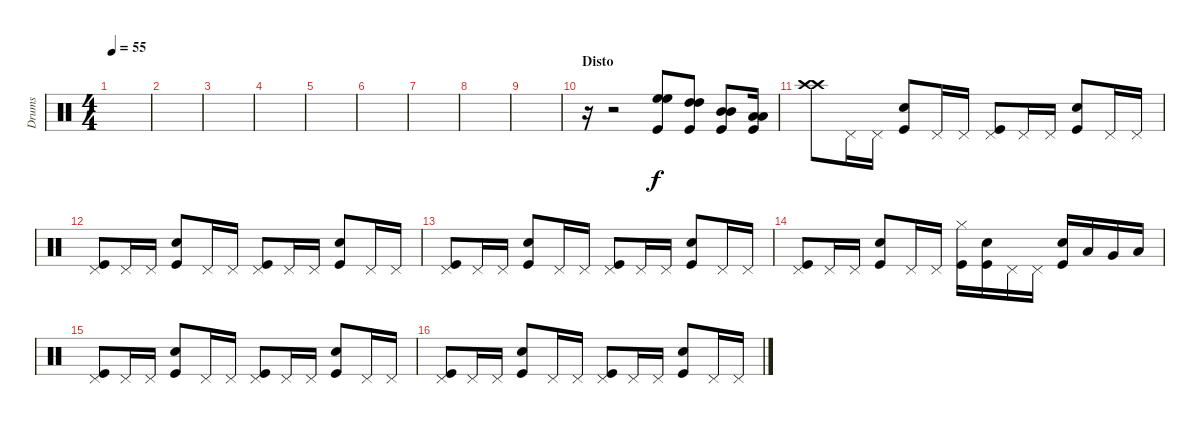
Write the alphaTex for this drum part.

\track ("Drums" "Drums") {instrument percussion}
\staff {score}
\articulation defaults
\ts (4 4)
\tempo 55
\clef neutral
\ks c
|
|
|
|
|
|
|
|
|
\section ("" "Disto")
r.16 r.2 ("High Floor Tom (hit)" "High Floor Tom (hit)" "Kick (hit)").8 ("High Tom (hit)" "High Tom (hit)" "Kick (hit)").8 ("Mid Tom (hit)" "Mid Tom (hit)" "Kick (hit)").8 ("Low Tom (hit)" "Low Tom (hit)" "Kick (hit)").16 |
("Crash high (hit)" "Crash high (hit)").8{dy f} "Pedal Hi-Hat (hit)".16 "Pedal Hi-Hat (hit)".16 ("Snare (hit) 2" "Kick (hit)").8 "Pedal Hi-Hat (hit)".16 "Pedal Hi-Hat (hit)".16 ("Pedal Hi-Hat (hit)" "Kick (hit)").8 "Pedal Hi-Hat (hit)".16 "Pedal Hi-Hat (hit)".16 ("Snare (hit) 2" "Kick (hit)").8 "Pedal Hi-Hat (hit)".16 "Pedal Hi-Hat (hit)".16 |
("Pedal Hi-Hat (hit)" "Kick (hit)").8 "Pedal Hi-Hat (hit)".16 "Pedal Hi-Hat (hit)".16 ("Snare (hit) 2" "Kick (hit)").8 "Pedal Hi-Hat (hit)".16 "Pedal Hi-Hat (hit)".16 ("Pedal Hi-Hat (hit)" "Kick (hit)").8 "Pedal Hi-Hat (hit)".16 "Pedal Hi-Hat (hit)".16 ("Snare (hit) 2" "Kick (hit)").8 "Pedal Hi-Hat (hit)".16 "Pedal Hi-Hat (hit)".16 |
("Pedal Hi-Hat (hit)" "Kick (hit)").8 "Pedal Hi-Hat (hit)".16 "Pedal Hi-Hat (hit)".16 ("Snare (hit) 2" "Kick (hit)").8 "Pedal Hi-Hat (hit)".16 "Pedal Hi-Hat (hit)".16 ("Pedal Hi-Hat (hit)" "Kick (hit)").8 "Pedal Hi-Hat (hit)".16 "Pedal Hi-Hat (hit)".16 ("Snare (hit) 2" "Kick (hit)").8 "Pedal Hi-Hat (hit)".16 "Pedal Hi-Hat (hit)".16 |
("Pedal Hi-Hat (hit)" "Kick (hit)").8 "Pedal Hi-Hat (hit)".16 "Pedal Hi-Hat (hit)".16 ("Snare (hit) 2" "Kick (hit)").8 "Pedal Hi-Hat (hit)".16 "Pedal Hi-Hat (hit)".16 ("Hi-Hat (closed)" "Kick (hit)").16 ("Snare (hit) 2" "Kick (hit)").16 "Pedal Hi-Hat (hit)".16 "Pedal Hi-Hat (hit)".16 ("Snare (hit) 2" "Kick (hit)").16 "Low Tom (hit)".16 "Very Low Tom (hit)".16 "Low Floor Tom (hit)".16 |
("Pedal Hi-Hat (hit)" "Kick (hit)").8 "Pedal Hi-Hat (hit)".16 "Pedal Hi-Hat (hit)".16 ("Snare (hit) 2" "Kick (hit)").8 "Pedal Hi-Hat (hit)".16 "Pedal Hi-Hat (hit)".16 ("Pedal Hi-Hat (hit)" "Kick (hit)").8 "Pedal Hi-Hat (hit)".16 "Pedal Hi-Hat (hit)".16 ("Snare (hit) 2" "Kick (hit)").8 "Pedal Hi-Hat (hit)".16 "Pedal Hi-Hat (hit)".16 |
("Pedal Hi-Hat (hit)" "Kick (hit)").8 "Pedal Hi-Hat (hit)".16 "Pedal Hi-Hat (hit)".16 ("Snare (hit) 2" "Kick (hit)").8 "Pedal Hi-Hat (hit)".16 "Pedal Hi-Hat (hit)".16 ("Pedal Hi-Hat (hit)" "Kick (hit)").8 "Pedal Hi-Hat (hit)".16 "Pedal Hi-Hat (hit)".16 ("Snare (hit) 2" "Kick (hit)").8 "Pedal Hi-Hat (hit)".16 "Pedal Hi-Hat (hit)".16
